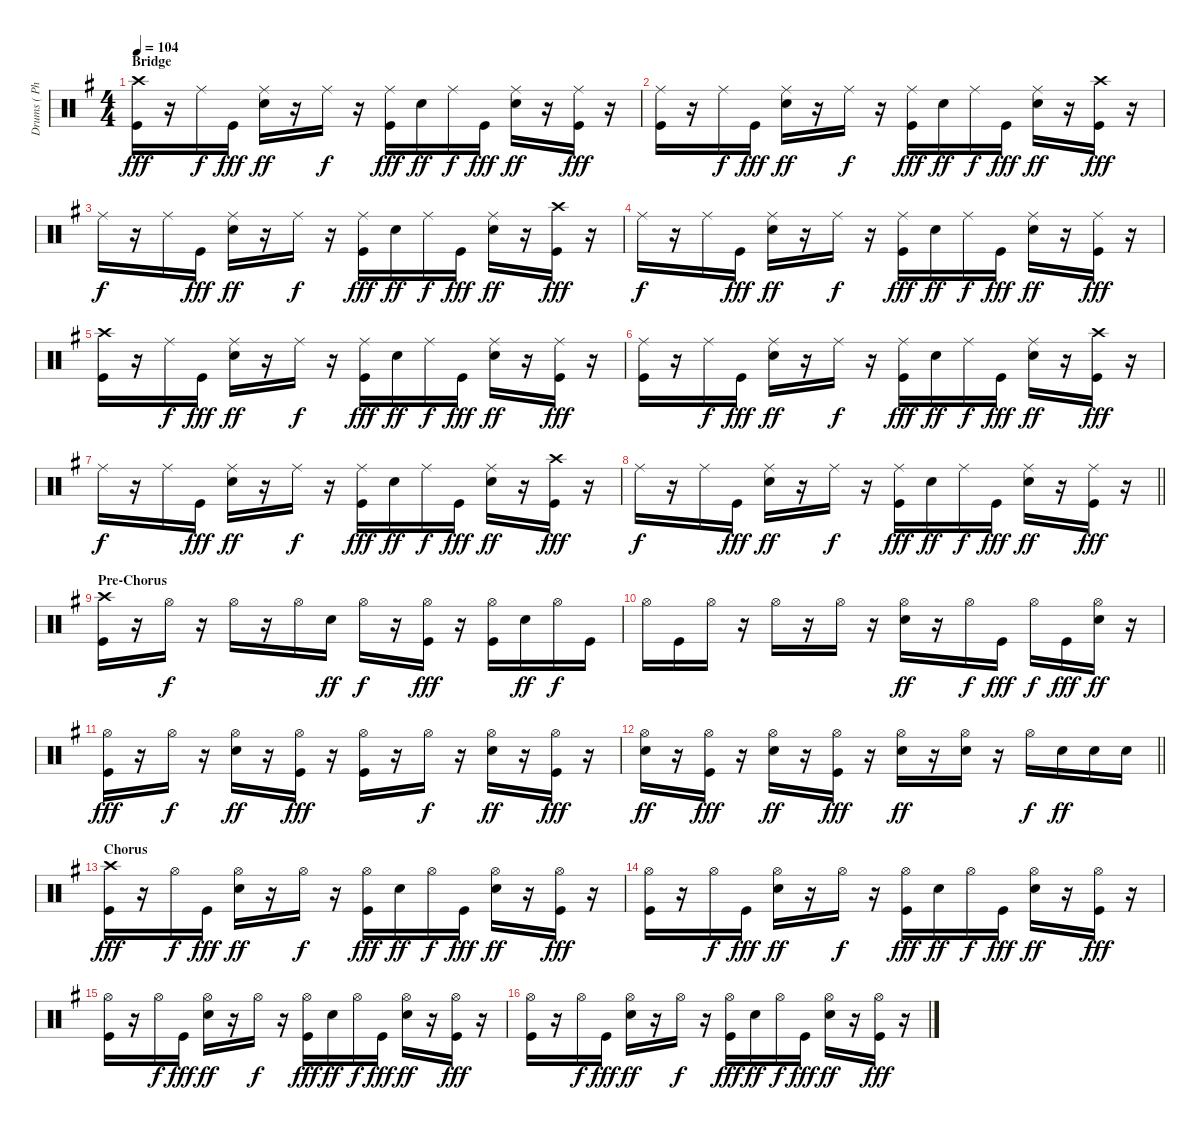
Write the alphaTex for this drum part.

\track ("Drums ( Phillip Selway )" "Drums ( Ph") {instrument percussion}
\staff {score}
\articulation defaults
\ts (4 4)
\section ("" "Bridge")
\tempo 104
\clef neutral
\ks eminor
("Crash high (hit)" "Kick (hit)").16{dy fff} r.16 "Ride (middle)".16{dy f} "Kick (hit)".16{dy fff} ("Ride (middle)" "Electric Snare (hit)").16{dy ff} r.16 "Ride (middle)".16{dy f} r.16 ("Ride (middle)" "Kick (hit)").16{dy fff} "Electric Snare (hit)".16{dy ff} "Ride (middle)".16{dy f} "Kick (hit)".16{dy fff} ("Ride (middle)" "Electric Snare (hit)").16{dy ff} r.16 ("Ride (middle)" "Kick (hit)").16{dy fff} r.16 |
("Ride (middle)" "Kick (hit)").16 r.16 "Ride (middle)".16{dy f} "Kick (hit)".16{dy fff} ("Ride (middle)" "Electric Snare (hit)").16{dy ff} r.16 "Ride (middle)".16{dy f} r.16 ("Ride (middle)" "Kick (hit)").16{dy fff} "Electric Snare (hit)".16{dy ff} "Ride (middle)".16{dy f} "Kick (hit)".16{dy fff} ("Ride (middle)" "Electric Snare (hit)").16{dy ff} r.16 ("Crash high (hit)" "Kick (hit)").16{dy fff} r.16 |
"Ride (middle)".16{dy f} r.16 "Ride (middle)".16 "Kick (hit)".16{dy fff} ("Ride (middle)" "Electric Snare (hit)").16{dy ff} r.16 "Ride (middle)".16{dy f} r.16 ("Ride (middle)" "Kick (hit)").16{dy fff} "Electric Snare (hit)".16{dy ff} "Ride (middle)".16{dy f} "Kick (hit)".16{dy fff} ("Ride (middle)" "Electric Snare (hit)").16{dy ff} r.16 ("Crash high (hit)" "Kick (hit)").16{dy fff} r.16 |
"Ride (middle)".16{dy f} r.16 "Ride (middle)".16 "Kick (hit)".16{dy fff} ("Ride (middle)" "Electric Snare (hit)").16{dy ff} r.16 "Ride (middle)".16{dy f} r.16 ("Ride (middle)" "Kick (hit)").16{dy fff} "Electric Snare (hit)".16{dy ff} "Ride (middle)".16{dy f} "Kick (hit)".16{dy fff} ("Ride (middle)" "Electric Snare (hit)").16{dy ff} r.16 ("Ride (middle)" "Kick (hit)").16{dy fff} r.16 |
("Crash high (hit)" "Kick (hit)").16 r.16 "Ride (middle)".16{dy f} "Kick (hit)".16{dy fff} ("Ride (middle)" "Electric Snare (hit)").16{dy ff} r.16 "Ride (middle)".16{dy f} r.16 ("Ride (middle)" "Kick (hit)").16{dy fff} "Electric Snare (hit)".16{dy ff} "Ride (middle)".16{dy f} "Kick (hit)".16{dy fff} ("Ride (middle)" "Electric Snare (hit)").16{dy ff} r.16 ("Ride (middle)" "Kick (hit)").16{dy fff} r.16 |
("Ride (middle)" "Kick (hit)").16 r.16 "Ride (middle)".16{dy f} "Kick (hit)".16{dy fff} ("Ride (middle)" "Electric Snare (hit)").16{dy ff} r.16 "Ride (middle)".16{dy f} r.16 ("Ride (middle)" "Kick (hit)").16{dy fff} "Electric Snare (hit)".16{dy ff} "Ride (middle)".16{dy f} "Kick (hit)".16{dy fff} ("Ride (middle)" "Electric Snare (hit)").16{dy ff} r.16 ("Crash high (hit)" "Kick (hit)").16{dy fff} r.16 |
"Ride (middle)".16{dy f} r.16 "Ride (middle)".16 "Kick (hit)".16{dy fff} ("Ride (middle)" "Electric Snare (hit)").16{dy ff} r.16 "Ride (middle)".16{dy f} r.16 ("Ride (middle)" "Kick (hit)").16{dy fff} "Electric Snare (hit)".16{dy ff} "Ride (middle)".16{dy f} "Kick (hit)".16{dy fff} ("Ride (middle)" "Electric Snare (hit)").16{dy ff} r.16 ("Crash high (hit)" "Kick (hit)").16{dy fff} r.16 |
\barLineRight lightlight "Ride (middle)".16{dy f}
r.16 "Ride (middle)".16 "Kick (hit)".16{dy fff} ("Ride (middle)" "Electric Snare (hit)").16{dy ff} r.16 "Ride (middle)".16{dy f} r.16 ("Ride (middle)" "Kick (hit)").16{dy fff} "Electric Snare (hit)".16{dy ff} "Ride (middle)".16{dy f} "Kick (hit)".16{dy fff} ("Ride (middle)" "Electric Snare (hit)").16{dy ff} r.16 ("Ride (middle)" "Kick (hit)").16{dy fff} r.16 |
\section ("" "Pre-Chorus")
("Crash high (hit)" "Kick (hit)").16 r.16 "Hi-Hat (open)".16{dy f} r.16 "Hi-Hat (open)".16 r.16 "Hi-Hat (open)".16 "Electric Snare (hit)".16{dy ff} "Hi-Hat (open)".16{dy f} r.16 ("Hi-Hat (open)" "Kick (hit)").16{dy fff} r.16 ("Hi-Hat (open)" "Kick (hit)").16 "Electric Snare (hit)".16{dy ff} "Hi-Hat (open)".16{dy f} "Kick (hit)".16 |
"Hi-Hat (open)".16 "Kick (hit)".16 "Hi-Hat (open)".16 r.16 "Hi-Hat (open)".16 r.16 "Hi-Hat (open)".16 r.16 ("Hi-Hat (open)" "Electric Snare (hit)").16{dy ff} r.16 "Hi-Hat (open)".16{dy f} "Kick (hit)".16{dy fff} "Hi-Hat (open)".16{dy f} "Kick (hit)".16{dy fff} ("Hi-Hat (open)" "Electric Snare (hit)").16{dy ff} r.16 |
("Hi-Hat (open)" "Kick (hit)").16{dy fff} r.16 "Hi-Hat (open)".16{dy f} r.16 ("Hi-Hat (open)" "Electric Snare (hit)").16{dy ff} r.16 ("Hi-Hat (open)" "Kick (hit)").16{dy fff} r.16 ("Hi-Hat (open)" "Kick (hit)").16 r.16 "Hi-Hat (open)".16{dy f} r.16 ("Hi-Hat (open)" "Electric Snare (hit)").16{dy ff} r.16 ("Hi-Hat (open)" "Kick (hit)").16{dy fff} r.16 |
\barLineRight lightlight
("Hi-Hat (open)" "Electric Snare (hit)").16{dy ff} r.16 ("Hi-Hat (open)" "Kick (hit)").16{dy fff} r.16 ("Hi-Hat (open)" "Electric Snare (hit)").16{dy ff} r.16 ("Hi-Hat (open)" "Kick (hit)").16{dy fff} r.16 ("Hi-Hat (open)" "Electric Snare (hit)").16{dy ff} r.16 ("Hi-Hat (open)" "Electric Snare (hit)").16 r.16 "Hi-Hat (open)".16{dy f} "Electric Snare (hit)".16{dy ff} "Electric Snare (hit)".16 "Electric Snare (hit)".16 |
\section ("" "Chorus")
("Crash high (hit)" "Kick (hit)").16{dy fff} r.16 "Hi-Hat (open)".16{dy f} "Kick (hit)".16{dy fff} ("Hi-Hat (open)" "Electric Snare (hit)").16{dy ff} r.16 "Hi-Hat (open)".16{dy f} r.16 ("Hi-Hat (open)" "Kick (hit)").16{dy fff} "Electric Snare (hit)".16{dy ff} "Hi-Hat (open)".16{dy f} "Kick (hit)".16{dy fff} ("Hi-Hat (open)" "Electric Snare (hit)").16{dy ff} r.16 ("Hi-Hat (open)" "Kick (hit)").16{dy fff} r.16 |
("Hi-Hat (open)" "Kick (hit)").16 r.16 "Hi-Hat (open)".16{dy f} "Kick (hit)".16{dy fff} ("Hi-Hat (open)" "Electric Snare (hit)").16{dy ff} r.16 "Hi-Hat (open)".16{dy f} r.16 ("Hi-Hat (open)" "Kick (hit)").16{dy fff} "Electric Snare (hit)".16{dy ff} "Hi-Hat (open)".16{dy f} "Kick (hit)".16{dy fff} ("Hi-Hat (open)" "Electric Snare (hit)").16{dy ff} r.16 ("Hi-Hat (open)" "Kick (hit)").16{dy fff} r.16 |
("Hi-Hat (open)" "Kick (hit)").16 r.16 "Hi-Hat (open)".16{dy f} "Kick (hit)".16{dy fff} ("Hi-Hat (open)" "Electric Snare (hit)").16{dy ff} r.16 "Hi-Hat (open)".16{dy f} r.16 ("Hi-Hat (open)" "Kick (hit)").16{dy fff} "Electric Snare (hit)".16{dy ff} "Hi-Hat (open)".16{dy f} "Kick (hit)".16{dy fff} ("Hi-Hat (open)" "Electric Snare (hit)").16{dy ff} r.16 ("Hi-Hat (open)" "Kick (hit)").16{dy fff} r.16 |
("Hi-Hat (open)" "Kick (hit)").16 r.16 "Hi-Hat (open)".16{dy f} "Kick (hit)".16{dy fff} ("Hi-Hat (open)" "Electric Snare (hit)").16{dy ff} r.16 "Hi-Hat (open)".16{dy f} r.16 ("Hi-Hat (open)" "Kick (hit)").16{dy fff} "Electric Snare (hit)".16{dy ff} "Hi-Hat (open)".16{dy f} "Kick (hit)".16{dy fff} ("Hi-Hat (open)" "Electric Snare (hit)").16{dy ff} r.16 ("Hi-Hat (open)" "Kick (hit)").16{dy fff} r.16
